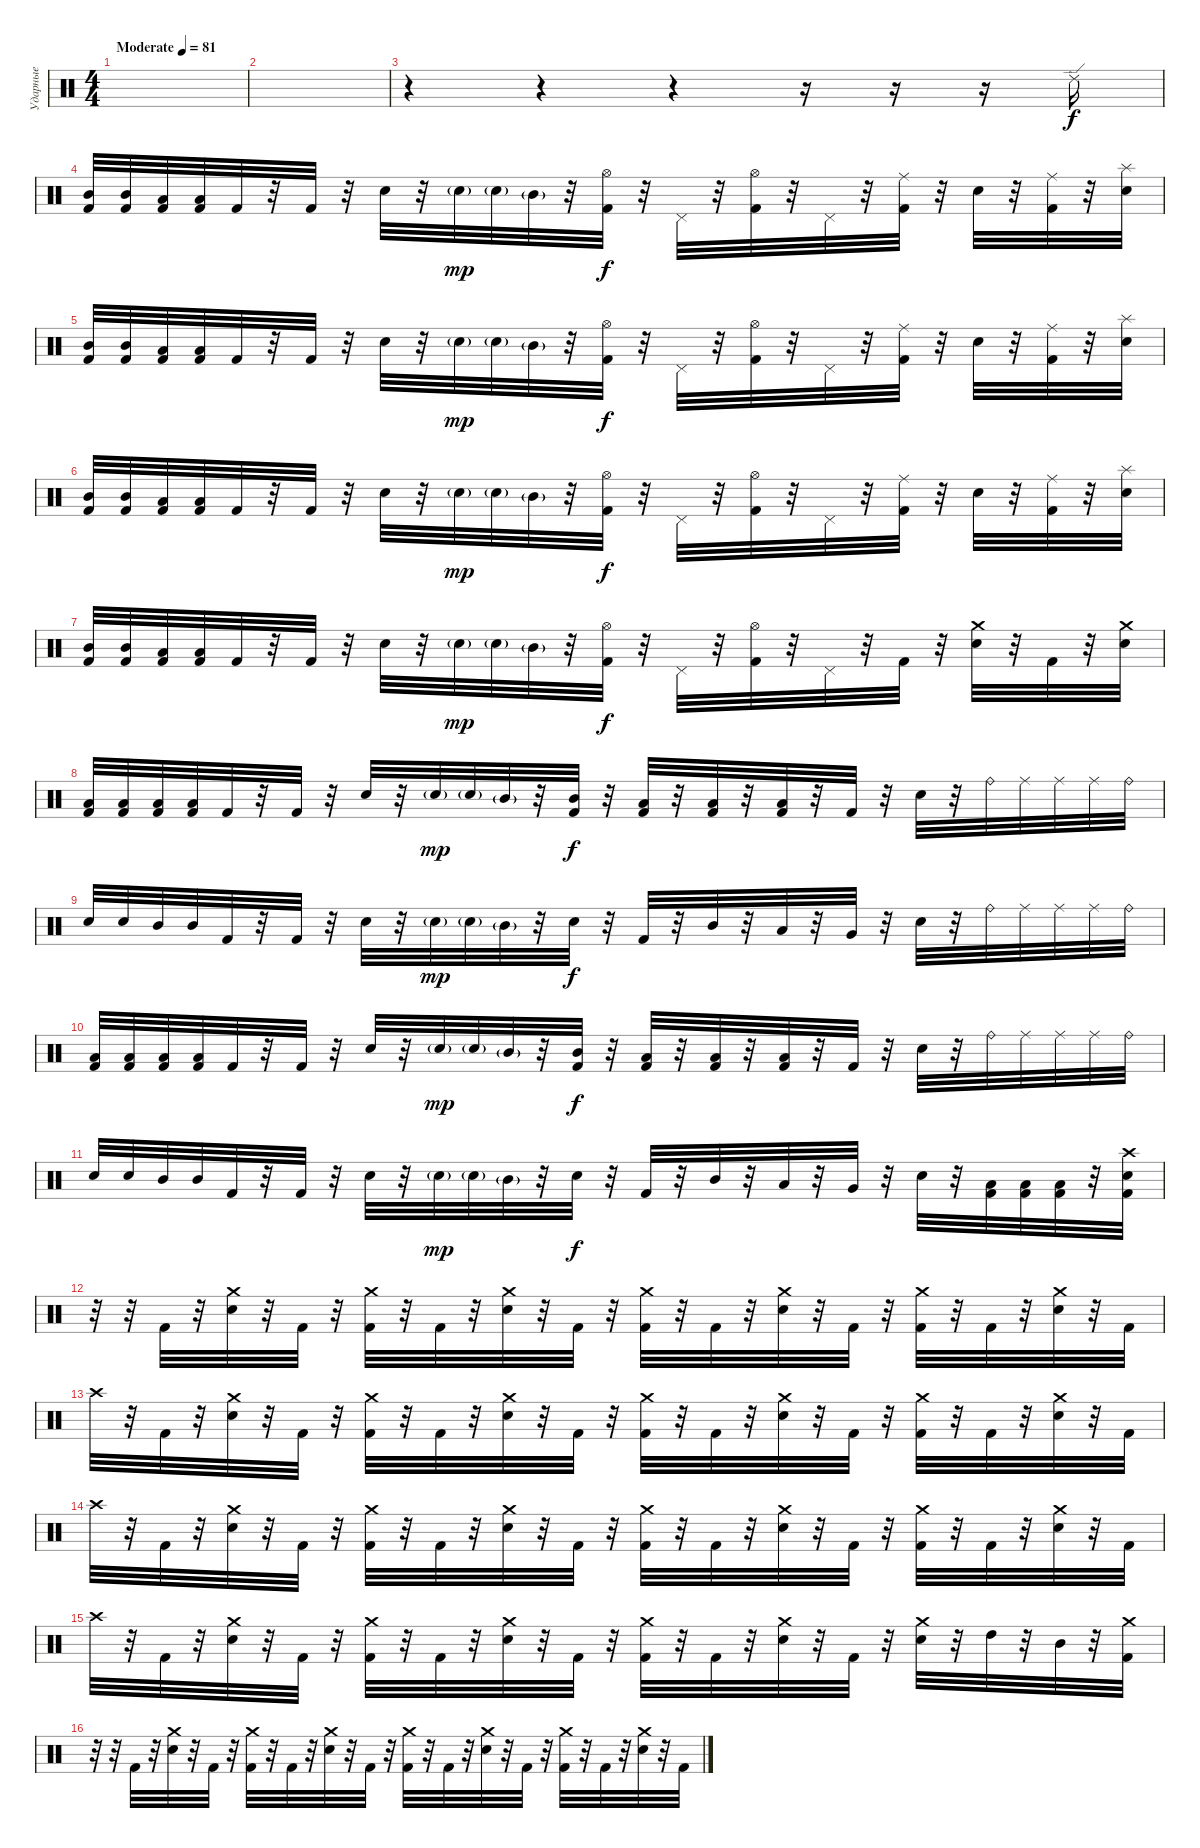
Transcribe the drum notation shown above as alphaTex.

\track ("Ударные" "Ударные") {instrument percussion}
\staff {score}
\articulation defaults
\ts (4 4)
\tempo (81 "Moderate")
\clef neutral
\ks c
|
|
r.4 r.4 r.4 r.16 r.16 r.16 "Ride (edge) 2".16 |
("Mid Tom (hit)" "Kick (hit) 2").32 ("Mid Tom (hit)" "Kick (hit) 2").32 ("Low Tom (hit)" "Kick (hit) 2").32 ("Low Tom (hit)" "Kick (hit) 2").32 "Kick (hit) 2".32 r.32 "Kick (hit) 2".32 r.32 "Electric Snare (hit)".32 r.32 "Electric Snare (hit)"{g}.32{dy mp} "Electric Snare (hit)"{g}.32 "Mid Tom (hit)"{g}.32 r.32 ("Hi-Hat (open)" "Kick (hit) 2").32{dy f} r.32 "Pedal Hi-Hat (hit)".32 r.32 ("Hi-Hat (open)" "Kick (hit) 2").32 r.32 "Pedal Hi-Hat (hit)".32 r.32 ("Ride (middle)" "Kick (hit) 2").32 r.32 "Electric Snare (hit)".32 r.32 ("Ride (middle)" "Kick (hit) 2").32 r.32 ("Splash (hit)" "Electric Snare (hit)").32 |
("Mid Tom (hit)" "Kick (hit) 2").32 ("Mid Tom (hit)" "Kick (hit) 2").32 ("Low Tom (hit)" "Kick (hit) 2").32 ("Low Tom (hit)" "Kick (hit) 2").32 "Kick (hit) 2".32 r.32 "Kick (hit) 2".32 r.32 "Electric Snare (hit)".32 r.32 "Electric Snare (hit)"{g}.32{dy mp} "Electric Snare (hit)"{g}.32 "Mid Tom (hit)"{g}.32 r.32 ("Hi-Hat (open)" "Kick (hit) 2").32{dy f} r.32 "Pedal Hi-Hat (hit)".32 r.32 ("Hi-Hat (open)" "Kick (hit) 2").32 r.32 "Pedal Hi-Hat (hit)".32 r.32 ("Ride (middle)" "Kick (hit) 2").32 r.32 "Electric Snare (hit)".32 r.32 ("Ride (middle)" "Kick (hit) 2").32 r.32 ("Splash (hit)" "Electric Snare (hit)").32 |
("Mid Tom (hit)" "Kick (hit) 2").32 ("Mid Tom (hit)" "Kick (hit) 2").32 ("Low Tom (hit)" "Kick (hit) 2").32 ("Low Tom (hit)" "Kick (hit) 2").32 "Kick (hit) 2".32 r.32 "Kick (hit) 2".32 r.32 "Electric Snare (hit)".32 r.32 "Electric Snare (hit)"{g}.32{dy mp} "Electric Snare (hit)"{g}.32 "Mid Tom (hit)"{g}.32 r.32 ("Hi-Hat (open)" "Kick (hit) 2").32{dy f} r.32 "Pedal Hi-Hat (hit)".32 r.32 ("Hi-Hat (open)" "Kick (hit) 2").32 r.32 "Pedal Hi-Hat (hit)".32 r.32 ("Ride (middle)" "Kick (hit) 2").32 r.32 "Electric Snare (hit)".32 r.32 ("Ride (middle)" "Kick (hit) 2").32 r.32 ("Splash (hit)" "Electric Snare (hit)").32 |
("Mid Tom (hit)" "Kick (hit) 2").32 ("Mid Tom (hit)" "Kick (hit) 2").32 ("Low Tom (hit)" "Kick (hit) 2").32 ("Low Tom (hit)" "Kick (hit) 2").32 "Kick (hit) 2".32 r.32 "Kick (hit) 2".32 r.32 "Electric Snare (hit)".32 r.32 "Electric Snare (hit)"{g}.32{dy mp} "Electric Snare (hit)"{g}.32 "Mid Tom (hit)"{g}.32 r.32 ("Hi-Hat (open)" "Kick (hit) 2").32{dy f} r.32 "Pedal Hi-Hat (hit)".32 r.32 ("Hi-Hat (open)" "Kick (hit) 2").32 r.32 "Pedal Hi-Hat (hit)".32 r.32 "Kick (hit) 2".32 r.32 ("Crash medium (hit)" "Electric Snare (hit)").32 r.32 "Kick (hit) 2".32 r.32 ("Crash medium (hit)" "Electric Snare (hit)").32 |
("Low Tom (hit)" "Kick (hit) 2").32 ("Low Tom (hit)" "Kick (hit) 2").32 ("Low Tom (hit)" "Kick (hit) 2").32 ("Low Tom (hit)" "Kick (hit) 2").32 "Kick (hit) 2".32 r.32 "Kick (hit) 2".32 r.32 "Electric Snare (hit)".32 r.32 "Electric Snare (hit)"{g}.32{dy mp} "Electric Snare (hit)"{g}.32 "Mid Tom (hit)"{g}.32 r.32 ("Mid Tom (hit)" "Kick (hit) 2").32{dy f} r.32 ("Low Tom (hit)" "Kick (hit) 2").32 r.32 ("Low Tom (hit)" "Kick (hit) 2").32 r.32 ("Low Tom (hit)" "Kick (hit) 2").32 r.32 "Kick (hit) 2".32 r.32 "Electric Snare (hit)".32 r.32 "Ride (bell)".32 "Ride (middle)".32 "Ride (middle)".32 "Ride (middle)".32 "Ride (bell)".32 |
"Electric Snare (hit)".32 "Electric Snare (hit)".32 "Mid Tom (hit)".32 "Mid Tom (hit)".32 "Kick (hit) 2".32 r.32 "Kick (hit) 2".32 r.32 "Electric Snare (hit)".32 r.32 "Electric Snare (hit)"{g}.32{dy mp} "Electric Snare (hit)"{g}.32 "Mid Tom (hit)"{g}.32 r.32 "Electric Snare (hit)".32{dy f} r.32 "Kick (hit) 2".32 r.32 "Mid Tom (hit)".32 r.32 "Low Tom (hit)".32 r.32 "Very Low Tom (hit)".32 r.32 "Electric Snare (hit)".32 r.32 "Ride (bell)".32 "Ride (middle)".32 "Ride (middle)".32 "Ride (middle)".32 "Ride (bell)".32 |
("Low Tom (hit)" "Kick (hit) 2").32 ("Low Tom (hit)" "Kick (hit) 2").32 ("Low Tom (hit)" "Kick (hit) 2").32 ("Low Tom (hit)" "Kick (hit) 2").32 "Kick (hit) 2".32 r.32 "Kick (hit) 2".32 r.32 "Electric Snare (hit)".32 r.32 "Electric Snare (hit)"{g}.32{dy mp} "Electric Snare (hit)"{g}.32 "Mid Tom (hit)"{g}.32 r.32 ("Mid Tom (hit)" "Kick (hit) 2").32{dy f} r.32 ("Low Tom (hit)" "Kick (hit) 2").32 r.32 ("Low Tom (hit)" "Kick (hit) 2").32 r.32 ("Low Tom (hit)" "Kick (hit) 2").32 r.32 "Kick (hit) 2".32 r.32 "Electric Snare (hit)".32 r.32 "Ride (bell)".32 "Ride (middle)".32 "Ride (middle)".32 "Ride (middle)".32 "Ride (bell)".32 |
"Electric Snare (hit)".32 "Electric Snare (hit)".32 "Mid Tom (hit)".32 "Mid Tom (hit)".32 "Kick (hit) 2".32 r.32 "Kick (hit) 2".32 r.32 "Electric Snare (hit)".32 r.32 "Electric Snare (hit)"{g}.32{dy mp} "Electric Snare (hit)"{g}.32 "Mid Tom (hit)"{g}.32 r.32 "Electric Snare (hit)".32{dy f} r.32 "Kick (hit) 2".32 r.32 "Mid Tom (hit)".32 r.32 "Low Tom (hit)".32 r.32 "Very Low Tom (hit)".32 r.32 "Electric Snare (hit)".32 r.32 ("Kick (hit) 2" "Low Tom (hit)").32 ("Kick (hit) 2" "Low Tom (hit)").32 ("Kick (hit) 2" "Low Tom (hit)").32 r.32 ("Crash high (hit)" "Electric Snare (hit)" "Kick (hit) 2").32 |
r.32 r.32 "Kick (hit) 2".32 r.32 ("Crash medium (hit)" "Electric Snare (hit)").32 r.32 "Kick (hit) 2".32 r.32 ("Crash medium (hit)" "Kick (hit) 2").32 r.32 "Kick (hit) 2".32 r.32 ("Crash medium (hit)" "Electric Snare (hit)").32 r.32 "Kick (hit) 2".32 r.32 ("Crash medium (hit)" "Kick (hit) 2").32 r.32 "Kick (hit) 2".32 r.32 ("Crash medium (hit)" "Electric Snare (hit)").32 r.32 "Kick (hit) 2".32 r.32 ("Crash medium (hit)" "Kick (hit) 2").32 r.32 "Kick (hit) 2".32 r.32 ("Crash medium (hit)" "Electric Snare (hit)").32 r.32 "Kick (hit) 2".32 |
"Crash high (hit)".32 r.32 "Kick (hit) 2".32 r.32 ("Crash medium (hit)" "Electric Snare (hit)").32 r.32 "Kick (hit) 2".32 r.32 ("Crash medium (hit)" "Kick (hit) 2").32 r.32 "Kick (hit) 2".32 r.32 ("Crash medium (hit)" "Electric Snare (hit)").32 r.32 "Kick (hit) 2".32 r.32 ("Crash medium (hit)" "Kick (hit) 2").32 r.32 "Kick (hit) 2".32 r.32 ("Crash medium (hit)" "Electric Snare (hit)").32 r.32 "Kick (hit) 2".32 r.32 ("Crash medium (hit)" "Kick (hit) 2").32 r.32 "Kick (hit) 2".32 r.32 ("Crash medium (hit)" "Electric Snare (hit)").32 r.32 "Kick (hit) 2".32 |
"Crash high (hit)".32 r.32 "Kick (hit) 2".32 r.32 ("Crash medium (hit)" "Electric Snare (hit)").32 r.32 "Kick (hit) 2".32 r.32 ("Crash medium (hit)" "Kick (hit) 2").32 r.32 "Kick (hit) 2".32 r.32 ("Crash medium (hit)" "Electric Snare (hit)").32 r.32 "Kick (hit) 2".32 r.32 ("Crash medium (hit)" "Kick (hit) 2").32 r.32 "Kick (hit) 2".32 r.32 ("Crash medium (hit)" "Electric Snare (hit)").32 r.32 "Kick (hit) 2".32 r.32 ("Crash medium (hit)" "Kick (hit) 2").32 r.32 "Kick (hit) 2".32 r.32 ("Crash medium (hit)" "Electric Snare (hit)").32 r.32 "Kick (hit) 2".32 |
"Crash high (hit)".32 r.32 "Kick (hit) 2".32 r.32 ("Crash medium (hit)" "Electric Snare (hit)").32 r.32 "Kick (hit) 2".32 r.32 ("Crash medium (hit)" "Kick (hit) 2").32 r.32 "Kick (hit) 2".32 r.32 ("Crash medium (hit)" "Electric Snare (hit)").32 r.32 "Kick (hit) 2".32 r.32 ("Crash medium (hit)" "Kick (hit) 2").32 r.32 "Kick (hit) 2".32 r.32 ("Crash medium (hit)" "Electric Snare (hit)").32 r.32 "Kick (hit) 2".32 r.32 ("Crash medium (hit)" "Electric Snare (hit)").32 r.32 "High Tom (hit)".32 r.32 "Mid Tom (hit)".32 r.32 ("Crash medium (hit)" "Kick (hit) 2").32 |
r.32 r.32 "Kick (hit) 2".32 r.32 ("Crash medium (hit)" "Electric Snare (hit)").32 r.32 "Kick (hit) 2".32 r.32 ("Crash medium (hit)" "Kick (hit) 2").32 r.32 "Kick (hit) 2".32 r.32 ("Crash medium (hit)" "Electric Snare (hit)").32 r.32 "Kick (hit) 2".32 r.32 ("Crash medium (hit)" "Kick (hit) 2").32 r.32 "Kick (hit) 2".32 r.32 ("Crash medium (hit)" "Electric Snare (hit)").32 r.32 "Kick (hit) 2".32 r.32 ("Crash medium (hit)" "Kick (hit) 2").32 r.32 "Kick (hit) 2".32 r.32 ("Crash medium (hit)" "Electric Snare (hit)").32 r.32 "Kick (hit) 2".32
